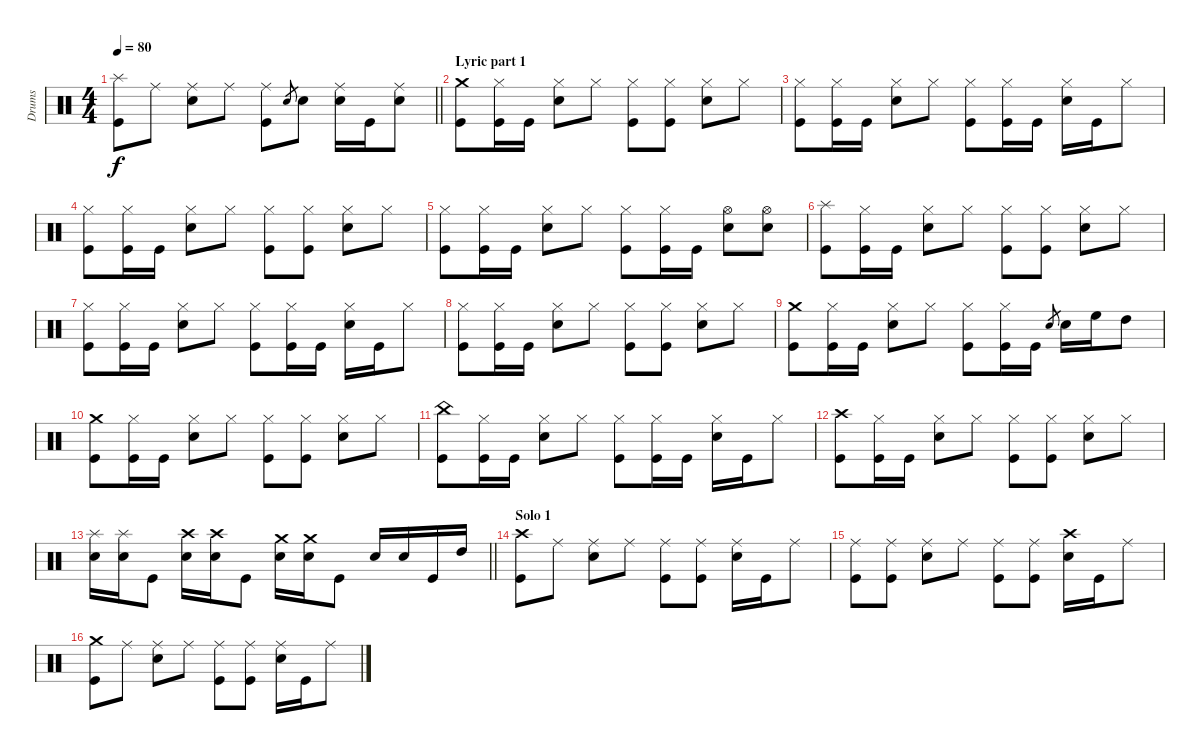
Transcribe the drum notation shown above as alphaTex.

\track ("Drums" "Drums") {instrument percussion}
\staff {score}
\articulation defaults
\ts (4 4)
\tempo 80
\clef neutral
\barLineRight lightlight
\ks c
("Splash (hit)" "Kick (hit)").8{dy f} "Ride (middle)".8 ("Snare (hit) 2" "Ride (middle)").8 "Ride (middle)".8 ("Kick (hit)" "Ride (middle)").8 "Snare (hit) 2".8{gr} "Snare (hit) 2".8 ("Snare (hit) 2" "Ride (middle)").16 "Kick (hit)".16 ("Snare (hit) 2" "Ride (middle)").8 |
\section ("" "Lyric part 1")
("Kick (hit)" "Crash medium (hit)").8 ("Kick (hit)" "Hi-Hat (closed)").16 "Kick (hit)".16 ("Snare (hit) 2" "Hi-Hat (closed)").8 "Hi-Hat (closed)".8 ("Kick (hit)" "Hi-Hat (closed)").8 ("Kick (hit)" "Hi-Hat (closed)").8 ("Snare (hit) 2" "Hi-Hat (closed)").8 "Hi-Hat (closed)".8 |
("Kick (hit)" "Hi-Hat (closed)").8 ("Kick (hit)" "Hi-Hat (closed)").16 "Kick (hit)".16 ("Snare (hit) 2" "Hi-Hat (closed)").8 "Hi-Hat (closed)".8 ("Kick (hit)" "Hi-Hat (closed)").8 ("Kick (hit)" "Hi-Hat (closed)").16 "Kick (hit)".16 ("Snare (hit) 2" "Hi-Hat (closed)").16 "Kick (hit)".16 "Hi-Hat (closed)".8 |
("Kick (hit)" "Hi-Hat (closed)").8 ("Kick (hit)" "Hi-Hat (closed)").16 "Kick (hit)".16 ("Snare (hit) 2" "Hi-Hat (closed)").8 "Hi-Hat (closed)".8 ("Kick (hit)" "Hi-Hat (closed)").8 ("Kick (hit)" "Hi-Hat (closed)").8 ("Snare (hit) 2" "Hi-Hat (closed)").8 "Hi-Hat (closed)".8 |
("Kick (hit)" "Hi-Hat (closed)").8 ("Kick (hit)" "Hi-Hat (closed)").16 "Kick (hit)".16 ("Snare (hit) 2" "Hi-Hat (closed)").8 "Hi-Hat (closed)".8 ("Kick (hit)" "Hi-Hat (closed)").8 ("Kick (hit)" "Hi-Hat (closed)").16 "Kick (hit)".16 ("Snare (hit) 2" "Hi-Hat (open)").8 ("Snare (hit) 2" "Hi-Hat (open)").8 |
("Kick (hit)" "Splash (hit)").8 ("Kick (hit)" "Hi-Hat (closed)").16 "Kick (hit)".16 ("Snare (hit) 2" "Hi-Hat (closed)").8 "Hi-Hat (closed)".8 ("Kick (hit)" "Hi-Hat (closed)").8 ("Kick (hit)" "Hi-Hat (closed)").8 ("Snare (hit) 2" "Hi-Hat (closed)").8 "Hi-Hat (closed)".8 |
("Kick (hit)" "Hi-Hat (closed)").8 ("Kick (hit)" "Hi-Hat (closed)").16 "Kick (hit)".16 ("Snare (hit) 2" "Hi-Hat (closed)").8 "Hi-Hat (closed)".8 ("Kick (hit)" "Hi-Hat (closed)").8 ("Kick (hit)" "Hi-Hat (closed)").16 "Kick (hit)".16 ("Snare (hit) 2" "Hi-Hat (closed)").16 "Kick (hit)".16 "Hi-Hat (closed)".8 |
("Kick (hit)" "Hi-Hat (closed)").8 ("Kick (hit)" "Hi-Hat (closed)").16 "Kick (hit)".16 ("Snare (hit) 2" "Hi-Hat (closed)").8 "Hi-Hat (closed)".8 ("Kick (hit)" "Hi-Hat (closed)").8 ("Kick (hit)" "Hi-Hat (closed)").8 ("Snare (hit) 2" "Hi-Hat (closed)").8 "Hi-Hat (closed)".8 |
("Kick (hit)" "Crash medium (hit)").8 ("Kick (hit)" "Hi-Hat (closed)").16 "Kick (hit)".16 ("Snare (hit) 2" "Hi-Hat (closed)").8 "Hi-Hat (closed)".8 ("Kick (hit)" "Hi-Hat (closed)").8 ("Kick (hit)" "Hi-Hat (closed)").16 "Kick (hit)".16 "Snare (hit) 2".8{gr} "Snare (hit) 2".16 "High Floor Tom (hit)".16 "High Tom (hit)".8 |
("Kick (hit)" "Crash medium (hit)").8 ("Kick (hit)" "Hi-Hat (closed)").16 "Kick (hit)".16 ("Snare (hit) 2" "Hi-Hat (closed)").8 "Hi-Hat (closed)".8 ("Kick (hit)" "Hi-Hat (closed)").8 ("Kick (hit)" "Hi-Hat (closed)").8 ("Snare (hit) 2" "Hi-Hat (closed)").8 "Hi-Hat (closed)".8 |
("Kick (hit)" "China (hit)").8 ("Kick (hit)" "Hi-Hat (closed)").16 "Kick (hit)".16 ("Snare (hit) 2" "Hi-Hat (closed)").8 "Hi-Hat (closed)".8 ("Kick (hit)" "Hi-Hat (closed)").8 ("Kick (hit)" "Hi-Hat (closed)").16 "Kick (hit)".16 ("Snare (hit) 2" "Hi-Hat (closed)").16 "Kick (hit)".16 "Hi-Hat (closed)".8 |
("Kick (hit)" "Crash high (hit)").8 ("Kick (hit)" "Hi-Hat (closed)").16 "Kick (hit)".16 ("Snare (hit) 2" "Hi-Hat (closed)").8 "Hi-Hat (closed)".8 ("Kick (hit)" "Hi-Hat (closed)").8 ("Kick (hit)" "Hi-Hat (closed)").8 ("Snare (hit) 2" "Hi-Hat (closed)").8 "Hi-Hat (closed)".8 |
\barLineRight lightlight
("Snare (hit) 2" "Splash (hit)").16 ("Snare (hit) 2" "Splash (hit)").16 "Kick (hit)".8 ("Snare (hit) 2" "Crash high (hit)").16 ("Snare (hit) 2" "Crash high (hit)").16 "Kick (hit)".8 ("Snare (hit) 2" "Crash medium (hit)").16 ("Snare (hit) 2" "Crash medium (hit)").16 "Kick (hit)".8 "Snare (hit) 2".16 "Snare (hit) 2".16 "Kick (hit)".16 "High Tom (hit)".16 |
\section ("" "Solo 1")
("Kick (hit)" "Crash high (hit)").8 "Ride (middle)".8 ("Snare (hit) 2" "Ride (middle)").8 "Ride (middle)".8 ("Kick (hit)" "Ride (middle)").8 ("Kick (hit)" "Ride (middle)").8 ("Snare (hit) 2" "Ride (middle)").16 "Kick (hit)".16 "Ride (middle)".8 |
("Kick (hit)" "Ride (middle)").8 ("Ride (middle)" "Kick (hit)").8 ("Snare (hit) 2" "Ride (middle)").8 "Ride (middle)".8 ("Kick (hit)" "Ride (middle)").8 ("Kick (hit)" "Ride (middle)").8 ("Snare (hit) 2" "Crash high (hit)").16 "Kick (hit)".16 "Ride (middle)".8 |
("Kick (hit)" "Crash medium (hit)").8 "Ride (middle)".8 ("Snare (hit) 2" "Ride (middle)").8 "Ride (middle)".8 ("Kick (hit)" "Ride (middle)").8 ("Kick (hit)" "Ride (middle)").8 ("Snare (hit) 2" "Ride (middle)").16 "Kick (hit)".16 "Ride (middle)".8
